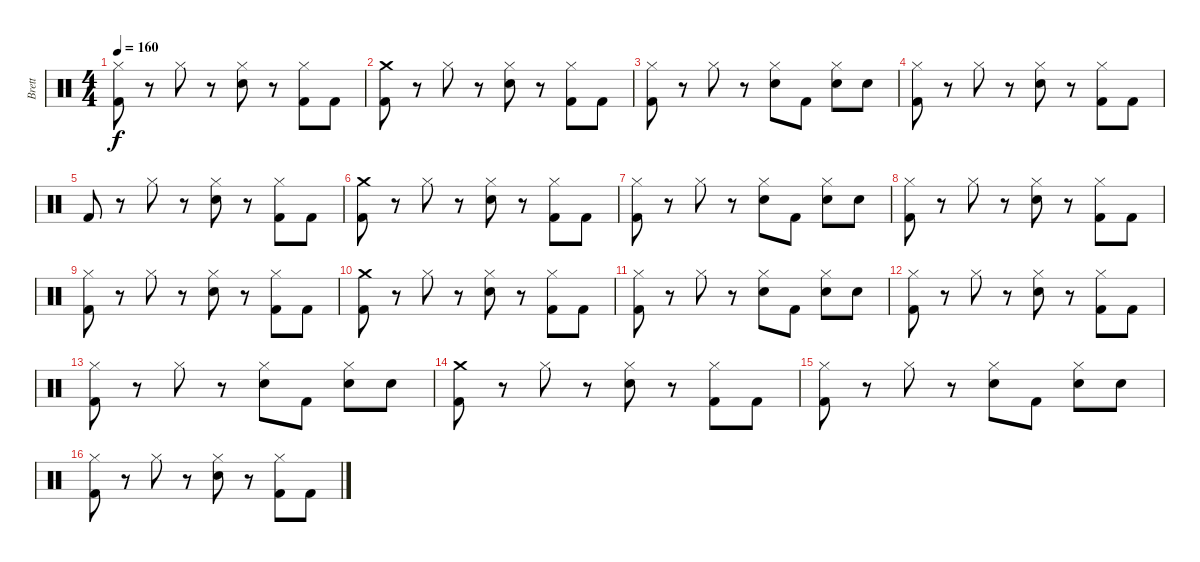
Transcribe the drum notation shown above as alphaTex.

\track ("Brett" "Brett") {instrument percussion}
\staff {score}
\articulation defaults
\ts (4 4)
\tempo 160
\clef neutral
\ks c
("Hi-Hat (closed)" "Kick (hit) 2").8{dy f} r.8 "Hi-Hat (closed)".8 r.8 ("Hi-Hat (closed)" "Snare (hit) 2").8 r.8 ("Hi-Hat (closed)" "Kick (hit) 2").8 "Kick (hit) 2".8 |
("Crash medium (hit)" "Kick (hit) 2").8 r.8 "Hi-Hat (closed)".8 r.8 ("Hi-Hat (closed)" "Snare (hit) 2").8 r.8 ("Hi-Hat (closed)" "Kick (hit) 2").8 "Kick (hit) 2".8 |
("Hi-Hat (closed)" "Kick (hit) 2").8 r.8 "Hi-Hat (closed)".8 r.8 ("Hi-Hat (closed)" "Snare (hit) 2").8 "Kick (hit) 2".8 ("Hi-Hat (closed)" "Snare (hit) 2").8 "Snare (hit) 2".8 |
("Hi-Hat (closed)" "Kick (hit) 2").8 r.8 "Hi-Hat (closed)".8 r.8 ("Hi-Hat (closed)" "Snare (hit) 2").8 r.8 ("Hi-Hat (closed)" "Kick (hit) 2").8 "Kick (hit) 2".8 |
"Kick (hit) 2".8 r.8 "Hi-Hat (closed)".8 r.8 ("Hi-Hat (closed)" "Snare (hit) 2").8 r.8 ("Hi-Hat (closed)" "Kick (hit) 2").8 "Kick (hit) 2".8 |
("Crash medium (hit)" "Kick (hit) 2").8 r.8 "Hi-Hat (closed)".8 r.8 ("Hi-Hat (closed)" "Snare (hit) 2").8 r.8 ("Hi-Hat (closed)" "Kick (hit) 2").8 "Kick (hit) 2".8 |
("Hi-Hat (closed)" "Kick (hit) 2").8 r.8 "Hi-Hat (closed)".8 r.8 ("Hi-Hat (closed)" "Snare (hit) 2").8 "Kick (hit) 2".8 ("Hi-Hat (closed)" "Snare (hit) 2").8 "Snare (hit) 2".8 |
("Hi-Hat (closed)" "Kick (hit) 2").8 r.8 "Hi-Hat (closed)".8 r.8 ("Hi-Hat (closed)" "Snare (hit) 2").8 r.8 ("Hi-Hat (closed)" "Kick (hit) 2").8 "Kick (hit) 2".8 |
("Hi-Hat (closed)" "Kick (hit) 2").8 r.8 "Hi-Hat (closed)".8 r.8 ("Hi-Hat (closed)" "Snare (hit) 2").8 r.8 ("Hi-Hat (closed)" "Kick (hit) 2").8 "Kick (hit) 2".8 |
("Crash medium (hit)" "Kick (hit) 2").8 r.8 "Hi-Hat (closed)".8 r.8 ("Hi-Hat (closed)" "Snare (hit) 2").8 r.8 ("Hi-Hat (closed)" "Kick (hit) 2").8 "Kick (hit) 2".8 |
("Hi-Hat (closed)" "Kick (hit) 2").8 r.8 "Hi-Hat (closed)".8 r.8 ("Hi-Hat (closed)" "Snare (hit) 2").8 "Kick (hit) 2".8 ("Hi-Hat (closed)" "Snare (hit) 2").8 "Snare (hit) 2".8 |
("Hi-Hat (closed)" "Kick (hit) 2").8 r.8 "Hi-Hat (closed)".8 r.8 ("Hi-Hat (closed)" "Snare (hit) 2").8 r.8 ("Hi-Hat (closed)" "Kick (hit) 2").8 "Kick (hit) 2".8 |
("Hi-Hat (closed)" "Kick (hit) 2").8 r.8 "Hi-Hat (closed)".8 r.8 ("Hi-Hat (closed)" "Snare (hit) 2").8 "Kick (hit) 2".8 ("Hi-Hat (closed)" "Snare (hit) 2").8 "Snare (hit) 2".8 |
("Crash medium (hit)" "Kick (hit) 2").8 r.8 "Hi-Hat (closed)".8 r.8 ("Hi-Hat (closed)" "Snare (hit) 2").8 r.8 ("Hi-Hat (closed)" "Kick (hit) 2").8 "Kick (hit) 2".8 |
("Hi-Hat (closed)" "Kick (hit) 2").8 r.8 "Hi-Hat (closed)".8 r.8 ("Hi-Hat (closed)" "Snare (hit) 2").8 "Kick (hit) 2".8 ("Hi-Hat (closed)" "Snare (hit) 2").8 "Snare (hit) 2".8 |
("Hi-Hat (closed)" "Kick (hit) 2").8 r.8 "Hi-Hat (closed)".8 r.8 ("Hi-Hat (closed)" "Snare (hit) 2").8 r.8 ("Hi-Hat (closed)" "Kick (hit) 2").8 "Kick (hit) 2".8
